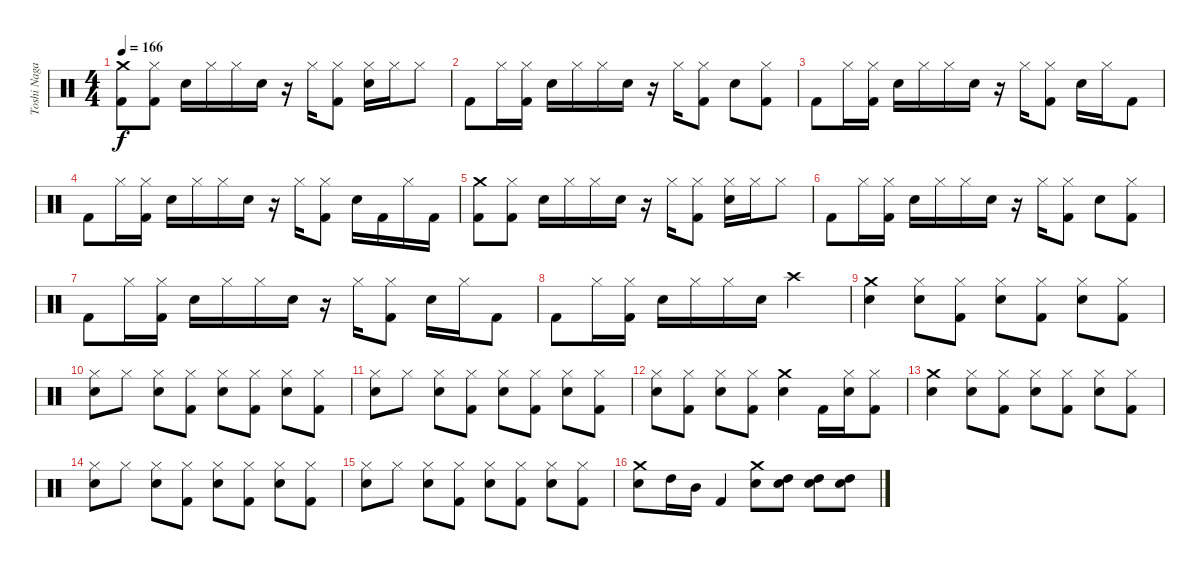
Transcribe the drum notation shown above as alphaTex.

\track ("Toshi Nagai" "Toshi Naga") {instrument percussion}
\staff {score}
\articulation defaults
\ts (4 4)
\tempo 166
\clef neutral
\ks c
("Crash medium (hit)" "Kick (hit) 2").8{dy f} ("Hi-Hat (closed)" "Kick (hit) 2").8 "Electric Snare (hit)".16 "Hi-Hat (closed)".16 "Hi-Hat (closed)".16 "Electric Snare (hit)".16 r.16 "Hi-Hat (closed)".16 ("Hi-Hat (closed)" "Kick (hit) 2").8 ("Hi-Hat (closed)" "Electric Snare (hit)").16 "Hi-Hat (closed)".16 "Hi-Hat (closed)".8 |
"Kick (hit) 2".8 "Hi-Hat (closed)".16 ("Hi-Hat (closed)" "Kick (hit) 2").16 "Electric Snare (hit)".16 "Hi-Hat (closed)".16 "Hi-Hat (closed)".16 "Electric Snare (hit)".16 r.16 "Hi-Hat (closed)".16 ("Hi-Hat (closed)" "Kick (hit) 2").8 "Electric Snare (hit)".8 ("Hi-Hat (closed)" "Kick (hit) 2").8 |
"Kick (hit) 2".8 "Hi-Hat (closed)".16 ("Hi-Hat (closed)" "Kick (hit) 2").16 "Electric Snare (hit)".16 "Hi-Hat (closed)".16 "Hi-Hat (closed)".16 "Electric Snare (hit)".16 r.16 "Hi-Hat (closed)".16 ("Hi-Hat (closed)" "Kick (hit) 2").8 "Electric Snare (hit)".16 "Hi-Hat (closed)".16 "Kick (hit) 2".8 |
"Kick (hit) 2".8 "Hi-Hat (closed)".16 ("Hi-Hat (closed)" "Kick (hit) 2").16 "Electric Snare (hit)".16 "Hi-Hat (closed)".16 "Hi-Hat (closed)".16 "Electric Snare (hit)".16 r.16 "Hi-Hat (closed)".16 ("Hi-Hat (closed)" "Kick (hit) 2").8 "Electric Snare (hit)".16 "Kick (hit) 2".16 "Hi-Hat (closed)".16 "Kick (hit) 2".16 |
("Crash medium (hit)" "Kick (hit) 2").8 ("Hi-Hat (closed)" "Kick (hit) 2").8 "Electric Snare (hit)".16 "Hi-Hat (closed)".16 "Hi-Hat (closed)".16 "Electric Snare (hit)".16 r.16 "Hi-Hat (closed)".16 ("Hi-Hat (closed)" "Kick (hit) 2").8 ("Hi-Hat (closed)" "Electric Snare (hit)").16 "Hi-Hat (closed)".16 "Hi-Hat (closed)".8 |
"Kick (hit) 2".8 "Hi-Hat (closed)".16 ("Hi-Hat (closed)" "Kick (hit) 2").16 "Electric Snare (hit)".16 "Hi-Hat (closed)".16 "Hi-Hat (closed)".16 "Electric Snare (hit)".16 r.16 "Hi-Hat (closed)".16 ("Hi-Hat (closed)" "Kick (hit) 2").8 "Electric Snare (hit)".8 ("Hi-Hat (closed)" "Kick (hit) 2").8 |
"Kick (hit) 2".8 "Hi-Hat (closed)".16 ("Hi-Hat (closed)" "Kick (hit) 2").16 "Electric Snare (hit)".16 "Hi-Hat (closed)".16 "Hi-Hat (closed)".16 "Electric Snare (hit)".16 r.16 "Hi-Hat (closed)".16 ("Hi-Hat (closed)" "Kick (hit) 2").8 "Electric Snare (hit)".16 "Hi-Hat (closed)".16 "Kick (hit) 2".8 |
"Kick (hit) 2".8 "Hi-Hat (closed)".16 ("Hi-Hat (closed)" "Kick (hit) 2").16 "Electric Snare (hit)".16 "Hi-Hat (closed)".16 "Hi-Hat (closed)".16 "Electric Snare (hit)".16 "Crash high (hit)".2 |
("Crash medium (hit)" "Electric Snare (hit)").4 ("Hi-Hat (closed)" "Electric Snare (hit)").8 ("Hi-Hat (closed)" "Kick (hit) 2").8 ("Hi-Hat (closed)" "Electric Snare (hit)").8 ("Hi-Hat (closed)" "Kick (hit) 2").8 ("Hi-Hat (closed)" "Electric Snare (hit)").8 ("Hi-Hat (closed)" "Kick (hit) 2").8 |
("Hi-Hat (closed)" "Electric Snare (hit)").8 "Hi-Hat (closed)".8 ("Hi-Hat (closed)" "Electric Snare (hit)").8 ("Hi-Hat (closed)" "Kick (hit) 2").8 ("Hi-Hat (closed)" "Electric Snare (hit)").8 ("Hi-Hat (closed)" "Kick (hit) 2").8 ("Hi-Hat (closed)" "Electric Snare (hit)").8 ("Hi-Hat (closed)" "Kick (hit) 2").8 |
("Hi-Hat (closed)" "Electric Snare (hit)").8 "Hi-Hat (closed)".8 ("Hi-Hat (closed)" "Electric Snare (hit)").8 ("Hi-Hat (closed)" "Kick (hit) 2").8 ("Hi-Hat (closed)" "Electric Snare (hit)").8 ("Hi-Hat (closed)" "Kick (hit) 2").8 ("Hi-Hat (closed)" "Electric Snare (hit)").8 ("Hi-Hat (closed)" "Kick (hit) 2").8 |
("Hi-Hat (closed)" "Electric Snare (hit)").8 ("Hi-Hat (closed)" "Kick (hit) 2").8 ("Hi-Hat (closed)" "Electric Snare (hit)").8 ("Hi-Hat (closed)" "Kick (hit) 2").8 ("Crash medium (hit)" "Electric Snare (hit)").4 "Kick (hit) 2".16 ("Hi-Hat (closed)" "Electric Snare (hit)").16 ("Hi-Hat (closed)" "Kick (hit) 2").8 |
("Crash medium (hit)" "Electric Snare (hit)").4 ("Hi-Hat (closed)" "Electric Snare (hit)").8 ("Hi-Hat (closed)" "Kick (hit) 2").8 ("Hi-Hat (closed)" "Electric Snare (hit)").8 ("Hi-Hat (closed)" "Kick (hit) 2").8 ("Hi-Hat (closed)" "Electric Snare (hit)").8 ("Hi-Hat (closed)" "Kick (hit) 2").8 |
("Hi-Hat (closed)" "Electric Snare (hit)").8 "Hi-Hat (closed)".8 ("Hi-Hat (closed)" "Electric Snare (hit)").8 ("Hi-Hat (closed)" "Kick (hit) 2").8 ("Hi-Hat (closed)" "Electric Snare (hit)").8 ("Hi-Hat (closed)" "Kick (hit) 2").8 ("Hi-Hat (closed)" "Electric Snare (hit)").8 ("Hi-Hat (closed)" "Kick (hit) 2").8 |
("Hi-Hat (closed)" "Electric Snare (hit)").8 "Hi-Hat (closed)".8 ("Hi-Hat (closed)" "Electric Snare (hit)").8 ("Hi-Hat (closed)" "Kick (hit) 2").8 ("Hi-Hat (closed)" "Electric Snare (hit)").8 ("Hi-Hat (closed)" "Kick (hit) 2").8 ("Hi-Hat (closed)" "Electric Snare (hit)").8 ("Hi-Hat (closed)" "Kick (hit) 2").8 |
("Crash medium (hit)" "Electric Snare (hit)").8 "High Tom (hit)".16 "Mid Tom (hit)".16 "Kick (hit) 2".4 ("Crash medium (hit)" "Electric Snare (hit)").8 ("High Tom (hit)" "Electric Snare (hit)").8 ("High Tom (hit)" "Electric Snare (hit)").8 ("High Tom (hit)" "Electric Snare (hit)").8
